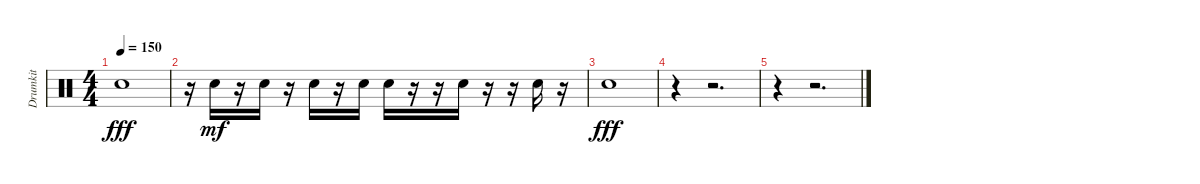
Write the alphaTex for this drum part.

\track ("Drumkit" "Drumkit") {instrument percussion}
\staff {score}
\articulation defaults
\ts (4 4)
\tempo 150
\clef neutral
\ks c "Snare (hit) 2".1{dy fff}
|
r.16 "Snare (hit) 2".16{dy mf} r.16 "Snare (hit) 2".16 r.16 "Snare (hit) 2".16 r.16 "Snare (hit) 2".16 "Snare (hit) 2".16 r.16 r.16 "Snare (hit) 2".16 r.16 r.16 "Snare (hit) 2".16 r.16 |
"Snare (hit) 2".1{dy fff} |
r.4 r.2{d} |
r.4 r.2{d}
